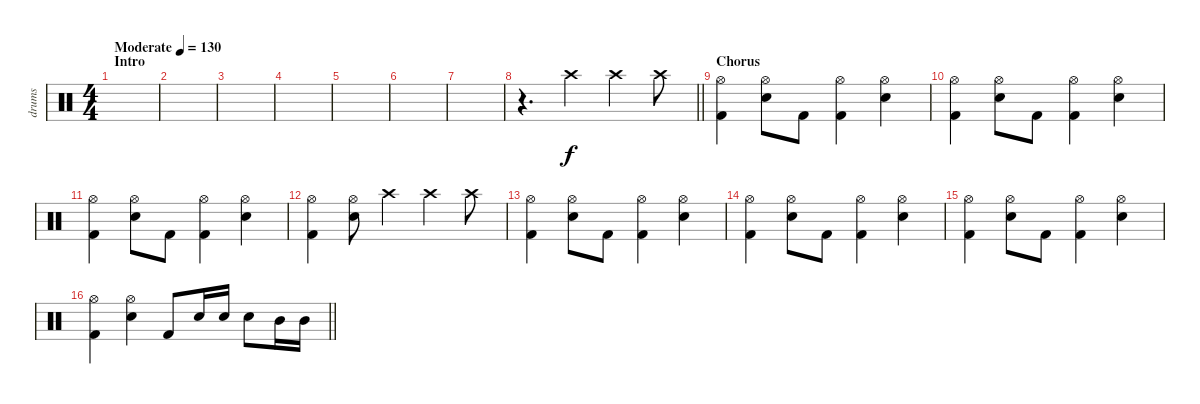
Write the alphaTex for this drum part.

\track ("drums" "drums") {instrument percussion}
\staff {score}
\articulation defaults
\ts (4 4)
\section ("" "Intro")
\tempo (130 "Moderate")
\clef neutral
\ks c
|
|
|
|
|
|
|
\barLineRight lightlight
r.4{d} "Crash high (hit)".4 "Crash high (hit)".4 "Crash high (hit)".8 |
\section ("" "Chorus")
("Hi-Hat (open)" "Kick (hit) 2").4 ("Hi-Hat (open)" "Snare (hit) 2").8 "Kick (hit) 2".8 ("Hi-Hat (open)" "Kick (hit) 2").4 ("Hi-Hat (open)" "Snare (hit) 2").4 |
("Hi-Hat (open)" "Kick (hit) 2").4 ("Hi-Hat (open)" "Snare (hit) 2").8 "Kick (hit) 2".8 ("Hi-Hat (open)" "Kick (hit) 2").4 ("Hi-Hat (open)" "Snare (hit) 2").4 |
("Hi-Hat (open)" "Kick (hit) 2").4 ("Hi-Hat (open)" "Snare (hit) 2").8 "Kick (hit) 2".8 ("Hi-Hat (open)" "Kick (hit) 2").4 ("Hi-Hat (open)" "Snare (hit) 2").4 |
("Hi-Hat (open)" "Kick (hit) 2").4 ("Hi-Hat (open)" "Snare (hit) 2").8 "Crash high (hit)".4 "Crash high (hit)".4 "Crash high (hit)".8 |
("Hi-Hat (open)" "Kick (hit) 2").4 ("Hi-Hat (open)" "Snare (hit) 2").8 "Kick (hit) 2".8 ("Hi-Hat (open)" "Kick (hit) 2").4 ("Hi-Hat (open)" "Snare (hit) 2").4 |
("Hi-Hat (open)" "Kick (hit) 2").4 ("Hi-Hat (open)" "Snare (hit) 2").8 "Kick (hit) 2".8 ("Hi-Hat (open)" "Kick (hit) 2").4 ("Hi-Hat (open)" "Snare (hit) 2").4 |
("Hi-Hat (open)" "Kick (hit) 2").4 ("Hi-Hat (open)" "Snare (hit) 2").8 "Kick (hit) 2".8 ("Hi-Hat (open)" "Kick (hit) 2").4 ("Hi-Hat (open)" "Snare (hit) 2").4 |
\barLineRight lightlight
("Hi-Hat (open)" "Kick (hit) 2").4 ("Hi-Hat (open)" "Snare (hit) 2").4 "Kick (hit) 2".8 "Snare (hit) 2".16 "Snare (hit) 2".16 "Snare (hit) 2".8 "Mid Tom (hit)".16 "Mid Tom (hit)".16
